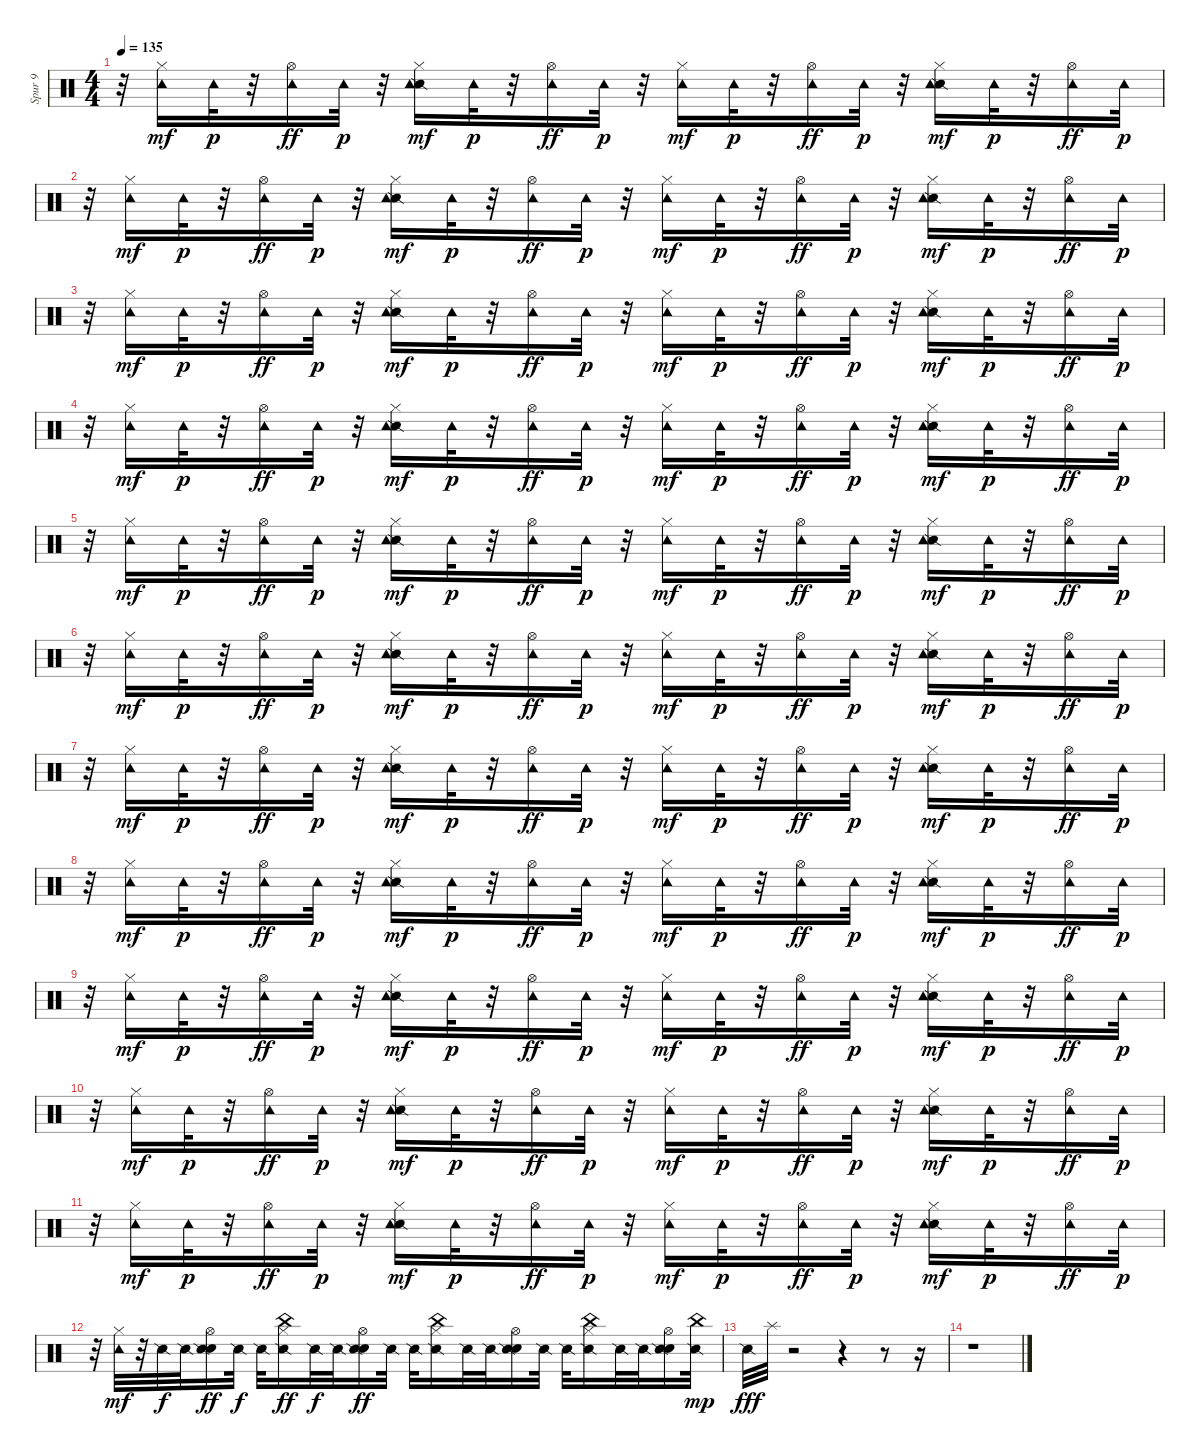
\track ("Spur 9" "Spur 9") {instrument percussion}
\staff {score}
\articulation defaults
\ts (4 4)
\tempo 135
\clef neutral
\ks c
r.32{dy p} ("Hi-Hat (closed)" "Tambourine (hit)").16{dy mf} "Tambourine (hit)".32{dy p} r.32 ("Hi-Hat (open)" "Tambourine (hit)").16{dy ff} "Tambourine (hit)".32{dy p} r.32 ("Snare (side stick) 2" "Hi-Hat (closed)" "Tambourine (hit)").16{dy mf} "Tambourine (hit)".32{dy p} r.32 ("Hi-Hat (open)" "Tambourine (hit)").16{dy ff} "Tambourine (hit)".32{dy p} r.32 ("Hi-Hat (closed)" "Tambourine (hit)").16{dy mf} "Tambourine (hit)".32{dy p} r.32 ("Hi-Hat (open)" "Tambourine (hit)").16{dy ff} "Tambourine (hit)".32{dy p} r.32 ("Snare (side stick) 2" "Hi-Hat (closed)" "Tambourine (hit)").16{dy mf} "Tambourine (hit)".32{dy p} r.32 ("Hi-Hat (open)" "Tambourine (hit)").16{dy ff} "Tambourine (hit)".32{dy p} |
r.32 ("Hi-Hat (closed)" "Tambourine (hit)").16{dy mf} "Tambourine (hit)".32{dy p} r.32 ("Hi-Hat (open)" "Tambourine (hit)").16{dy ff} "Tambourine (hit)".32{dy p} r.32 ("Snare (side stick) 2" "Hi-Hat (closed)" "Tambourine (hit)").16{dy mf} "Tambourine (hit)".32{dy p} r.32 ("Hi-Hat (open)" "Tambourine (hit)").16{dy ff} "Tambourine (hit)".32{dy p} r.32 ("Hi-Hat (closed)" "Tambourine (hit)").16{dy mf} "Tambourine (hit)".32{dy p} r.32 ("Hi-Hat (open)" "Tambourine (hit)").16{dy ff} "Tambourine (hit)".32{dy p} r.32 ("Snare (side stick) 2" "Hi-Hat (closed)" "Tambourine (hit)").16{dy mf} "Tambourine (hit)".32{dy p} r.32 ("Hi-Hat (open)" "Tambourine (hit)").16{dy ff} "Tambourine (hit)".32{dy p} |
r.32 ("Hi-Hat (closed)" "Tambourine (hit)").16{dy mf} "Tambourine (hit)".32{dy p} r.32 ("Hi-Hat (open)" "Tambourine (hit)").16{dy ff} "Tambourine (hit)".32{dy p} r.32 ("Snare (side stick) 2" "Hi-Hat (closed)" "Tambourine (hit)").16{dy mf} "Tambourine (hit)".32{dy p} r.32 ("Hi-Hat (open)" "Tambourine (hit)").16{dy ff} "Tambourine (hit)".32{dy p} r.32 ("Hi-Hat (closed)" "Tambourine (hit)").16{dy mf} "Tambourine (hit)".32{dy p} r.32 ("Hi-Hat (open)" "Tambourine (hit)").16{dy ff} "Tambourine (hit)".32{dy p} r.32 ("Snare (side stick) 2" "Hi-Hat (closed)" "Tambourine (hit)").16{dy mf} "Tambourine (hit)".32{dy p} r.32 ("Hi-Hat (open)" "Tambourine (hit)").16{dy ff} "Tambourine (hit)".32{dy p} |
r.32 ("Hi-Hat (closed)" "Tambourine (hit)").16{dy mf} "Tambourine (hit)".32{dy p} r.32 ("Hi-Hat (open)" "Tambourine (hit)").16{dy ff} "Tambourine (hit)".32{dy p} r.32 ("Snare (side stick) 2" "Hi-Hat (closed)" "Tambourine (hit)").16{dy mf} "Tambourine (hit)".32{dy p} r.32 ("Hi-Hat (open)" "Tambourine (hit)").16{dy ff} "Tambourine (hit)".32{dy p} r.32 ("Hi-Hat (closed)" "Tambourine (hit)").16{dy mf} "Tambourine (hit)".32{dy p} r.32 ("Hi-Hat (open)" "Tambourine (hit)").16{dy ff} "Tambourine (hit)".32{dy p} r.32 ("Snare (side stick) 2" "Hi-Hat (closed)" "Tambourine (hit)").16{dy mf} "Tambourine (hit)".32{dy p} r.32 ("Hi-Hat (open)" "Tambourine (hit)").16{dy ff} "Tambourine (hit)".32{dy p} |
r.32 ("Hi-Hat (closed)" "Tambourine (hit)").16{dy mf} "Tambourine (hit)".32{dy p} r.32 ("Hi-Hat (open)" "Tambourine (hit)").16{dy ff} "Tambourine (hit)".32{dy p} r.32 ("Snare (side stick) 2" "Hi-Hat (closed)" "Tambourine (hit)").16{dy mf} "Tambourine (hit)".32{dy p} r.32 ("Hi-Hat (open)" "Tambourine (hit)").16{dy ff} "Tambourine (hit)".32{dy p} r.32 ("Hi-Hat (closed)" "Tambourine (hit)").16{dy mf} "Tambourine (hit)".32{dy p} r.32 ("Hi-Hat (open)" "Tambourine (hit)").16{dy ff} "Tambourine (hit)".32{dy p} r.32 ("Snare (side stick) 2" "Hi-Hat (closed)" "Tambourine (hit)").16{dy mf} "Tambourine (hit)".32{dy p} r.32 ("Hi-Hat (open)" "Tambourine (hit)").16{dy ff} "Tambourine (hit)".32{dy p} |
r.32 ("Hi-Hat (closed)" "Tambourine (hit)").16{dy mf} "Tambourine (hit)".32{dy p} r.32 ("Hi-Hat (open)" "Tambourine (hit)").16{dy ff} "Tambourine (hit)".32{dy p} r.32 ("Snare (side stick) 2" "Hi-Hat (closed)" "Tambourine (hit)").16{dy mf} "Tambourine (hit)".32{dy p} r.32 ("Hi-Hat (open)" "Tambourine (hit)").16{dy ff} "Tambourine (hit)".32{dy p} r.32 ("Hi-Hat (closed)" "Tambourine (hit)").16{dy mf} "Tambourine (hit)".32{dy p} r.32 ("Hi-Hat (open)" "Tambourine (hit)").16{dy ff} "Tambourine (hit)".32{dy p} r.32 ("Snare (side stick) 2" "Hi-Hat (closed)" "Tambourine (hit)").16{dy mf} "Tambourine (hit)".32{dy p} r.32 ("Hi-Hat (open)" "Tambourine (hit)").16{dy ff} "Tambourine (hit)".32{dy p} |
r.32 ("Hi-Hat (closed)" "Tambourine (hit)").16{dy mf} "Tambourine (hit)".32{dy p} r.32 ("Hi-Hat (open)" "Tambourine (hit)").16{dy ff} "Tambourine (hit)".32{dy p} r.32 ("Snare (side stick) 2" "Hi-Hat (closed)" "Tambourine (hit)").16{dy mf} "Tambourine (hit)".32{dy p} r.32 ("Hi-Hat (open)" "Tambourine (hit)").16{dy ff} "Tambourine (hit)".32{dy p} r.32 ("Hi-Hat (closed)" "Tambourine (hit)").16{dy mf} "Tambourine (hit)".32{dy p} r.32 ("Hi-Hat (open)" "Tambourine (hit)").16{dy ff} "Tambourine (hit)".32{dy p} r.32 ("Snare (side stick) 2" "Hi-Hat (closed)" "Tambourine (hit)").16{dy mf} "Tambourine (hit)".32{dy p} r.32 ("Hi-Hat (open)" "Tambourine (hit)").16{dy ff} "Tambourine (hit)".32{dy p} |
r.32 ("Hi-Hat (closed)" "Tambourine (hit)").16{dy mf} "Tambourine (hit)".32{dy p} r.32 ("Hi-Hat (open)" "Tambourine (hit)").16{dy ff} "Tambourine (hit)".32{dy p} r.32 ("Snare (side stick) 2" "Hi-Hat (closed)" "Tambourine (hit)").16{dy mf} "Tambourine (hit)".32{dy p} r.32 ("Hi-Hat (open)" "Tambourine (hit)").16{dy ff} "Tambourine (hit)".32{dy p} r.32 ("Hi-Hat (closed)" "Tambourine (hit)").16{dy mf} "Tambourine (hit)".32{dy p} r.32 ("Hi-Hat (open)" "Tambourine (hit)").16{dy ff} "Tambourine (hit)".32{dy p} r.32 ("Snare (side stick) 2" "Hi-Hat (closed)" "Tambourine (hit)").16{dy mf} "Tambourine (hit)".32{dy p} r.32 ("Hi-Hat (open)" "Tambourine (hit)").16{dy ff} "Tambourine (hit)".32{dy p} |
r.32 ("Hi-Hat (closed)" "Tambourine (hit)").16{dy mf} "Tambourine (hit)".32{dy p} r.32 ("Hi-Hat (open)" "Tambourine (hit)").16{dy ff} "Tambourine (hit)".32{dy p} r.32 ("Snare (side stick) 2" "Hi-Hat (closed)" "Tambourine (hit)").16{dy mf} "Tambourine (hit)".32{dy p} r.32 ("Hi-Hat (open)" "Tambourine (hit)").16{dy ff} "Tambourine (hit)".32{dy p} r.32 ("Hi-Hat (closed)" "Tambourine (hit)").16{dy mf} "Tambourine (hit)".32{dy p} r.32 ("Hi-Hat (open)" "Tambourine (hit)").16{dy ff} "Tambourine (hit)".32{dy p} r.32 ("Snare (side stick) 2" "Hi-Hat (closed)" "Tambourine (hit)").16{dy mf} "Tambourine (hit)".32{dy p} r.32 ("Hi-Hat (open)" "Tambourine (hit)").16{dy ff} "Tambourine (hit)".32{dy p} |
r.32 ("Hi-Hat (closed)" "Tambourine (hit)").16{dy mf} "Tambourine (hit)".32{dy p} r.32 ("Hi-Hat (open)" "Tambourine (hit)").16{dy ff} "Tambourine (hit)".32{dy p} r.32 ("Snare (side stick) 2" "Hi-Hat (closed)" "Tambourine (hit)").16{dy mf} "Tambourine (hit)".32{dy p} r.32 ("Hi-Hat (open)" "Tambourine (hit)").16{dy ff} "Tambourine (hit)".32{dy p} r.32 ("Hi-Hat (closed)" "Tambourine (hit)").16{dy mf} "Tambourine (hit)".32{dy p} r.32 ("Hi-Hat (open)" "Tambourine (hit)").16{dy ff} "Tambourine (hit)".32{dy p} r.32 ("Snare (side stick) 2" "Hi-Hat (closed)" "Tambourine (hit)").16{dy mf} "Tambourine (hit)".32{dy p} r.32 ("Hi-Hat (open)" "Tambourine (hit)").16{dy ff} "Tambourine (hit)".32{dy p} |
r.32 ("Hi-Hat (closed)" "Tambourine (hit)").16{dy mf} "Tambourine (hit)".32{dy p} r.32 ("Hi-Hat (open)" "Tambourine (hit)").16{dy ff} "Tambourine (hit)".32{dy p} r.32 ("Snare (side stick) 2" "Hi-Hat (closed)" "Tambourine (hit)").16{dy mf} "Tambourine (hit)".32{dy p} r.32 ("Hi-Hat (open)" "Tambourine (hit)").16{dy ff} "Tambourine (hit)".32{dy p} r.32 ("Hi-Hat (closed)" "Tambourine (hit)").16{dy mf} "Tambourine (hit)".32{dy p} r.32 ("Hi-Hat (open)" "Tambourine (hit)").16{dy ff} "Tambourine (hit)".32{dy p} r.32 ("Snare (side stick) 2" "Hi-Hat (closed)" "Tambourine (hit)").16{dy mf} "Tambourine (hit)".32{dy p} r.32 ("Hi-Hat (open)" "Tambourine (hit)").16{dy ff} "Tambourine (hit)".32{dy p} |
r.32 ("Hi-Hat (closed)" "Tambourine (hit)").32{dy mf} r.32 "Snare (side stick) 2".32{dy f} "Snare (side stick) 2".32 ("Snare (hit)" "Snare (side stick) 2" "Hi-Hat (open)").16{dy ff} "Snare (side stick) 2".32{dy f} "Snare (side stick) 2".32 ("Snare (side stick) 2" "Hi-Hat (closed)" "China (hit)").16{dy ff} "Snare (side stick) 2".32{dy f} "Snare (side stick) 2".32 ("Snare (hit)" "Snare (side stick) 2" "Hi-Hat (open)").16{dy ff} "Snare (side stick) 2".32 "Snare (side stick) 2".32 ("Snare (side stick) 2" "Hi-Hat (closed)" "China (hit)").16 "Snare (side stick) 2".32 "Snare (side stick) 2".32 ("Snare (hit)" "Snare (side stick) 2" "Hi-Hat (open)").16 "Snare (side stick) 2".32 "Snare (side stick) 2".32 ("Snare (side stick) 2" "Hi-Hat (closed)" "China (hit)").16 "Snare (side stick) 2".32 "Snare (side stick) 2".32 ("Snare (hit)" "Snare (side stick) 2" "Hi-Hat (open)").16 ("Snare (side stick) 2" "China (hit)").32{dy mp} |
"Snare (side stick) 2".32{dy fff} "Splash (hit)".32 r.2 r.4 r.8 r.16 |
r.1
